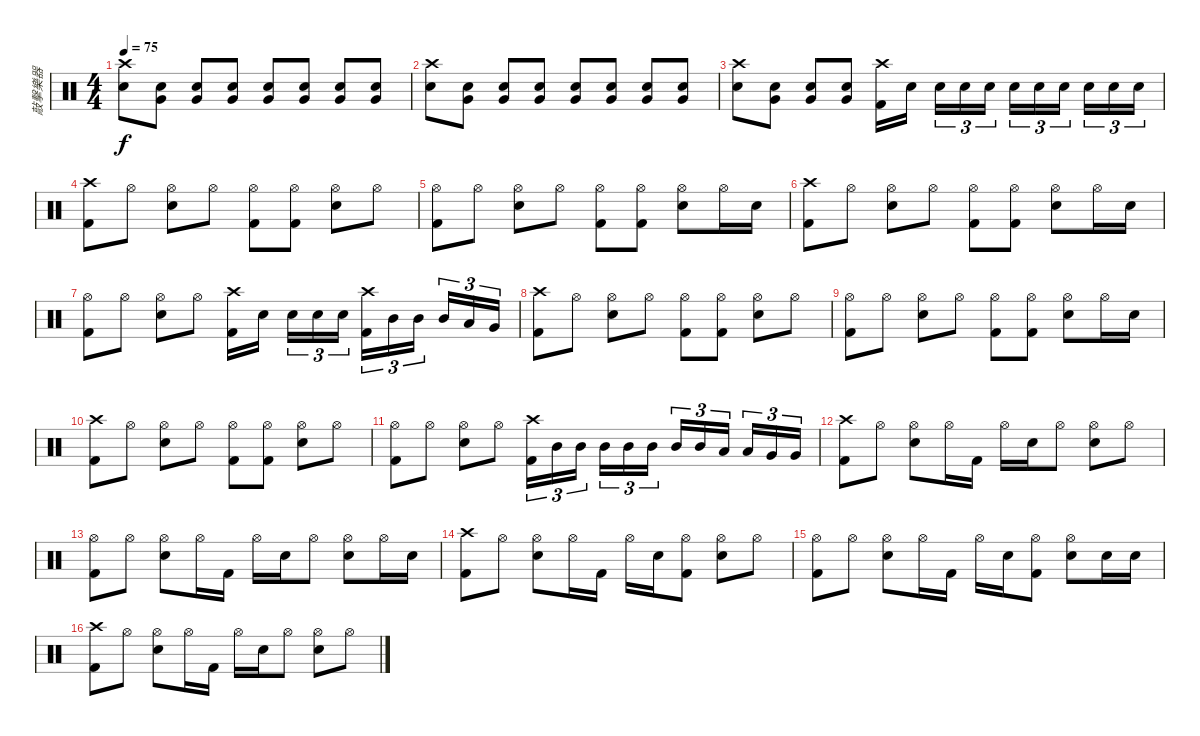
\track ("敲擊樂器" "敲擊樂器") {instrument percussion}
\staff {score}
\articulation defaults
\ts (4 4)
\tempo 75
\clef neutral
\ks c
("Crash high (hit)" "Snare (hit) 2").8{dy f} ("Very Low Tom (hit)" "Snare (hit) 2").8 ("Very Low Tom (hit)" "Snare (hit) 2").8 ("Very Low Tom (hit)" "Snare (hit) 2").8 ("Very Low Tom (hit)" "Snare (hit) 2").8 ("Very Low Tom (hit)" "Snare (hit) 2").8 ("Very Low Tom (hit)" "Snare (hit) 2").8 ("Very Low Tom (hit)" "Snare (hit) 2").8 |
("Snare (hit) 2" "Crash high (hit)").8 ("Snare (hit) 2" "Very Low Tom (hit)").8 ("Snare (hit) 2" "Very Low Tom (hit)").8 ("Snare (hit) 2" "Very Low Tom (hit)").8 ("Snare (hit) 2" "Very Low Tom (hit)").8 ("Snare (hit) 2" "Very Low Tom (hit)").8 ("Snare (hit) 2" "Very Low Tom (hit)").8 ("Snare (hit) 2" "Very Low Tom (hit)").8 |
("Snare (hit) 2" "Crash high (hit)").8 ("Snare (hit) 2" "Very Low Tom (hit)").8 ("Snare (hit) 2" "Very Low Tom (hit)").8 ("Snare (hit) 2" "Very Low Tom (hit)").8 ("Crash high (hit)" "Kick (hit) 2").16 "Snare (hit) 2".16 "Snare (hit) 2".16{tu (3 2)} "Snare (hit) 2".16{tu (3 2)} "Snare (hit) 2".16{tu (3 2)} "Snare (hit) 2".16{tu (3 2)} "Snare (hit) 2".16{tu (3 2)} "Snare (hit) 2".16{tu (3 2)} "Snare (hit) 2".16{tu (3 2)} "Snare (hit) 2".16{tu (3 2)} "Snare (hit) 2".16{tu (3 2)} |
("Kick (hit) 2" "Crash high (hit)").8 "Hi-Hat (open)".8 ("Hi-Hat (open)" "Snare (hit) 2").8 "Hi-Hat (open)".8 ("Hi-Hat (open)" "Kick (hit) 2").8 ("Hi-Hat (open)" "Kick (hit) 2").8 ("Hi-Hat (open)" "Snare (hit) 2").8 "Hi-Hat (open)".8 |
("Hi-Hat (open)" "Kick (hit) 2").8 "Hi-Hat (open)".8 ("Hi-Hat (open)" "Snare (hit) 2").8 "Hi-Hat (open)".8 ("Hi-Hat (open)" "Kick (hit) 2").8 ("Hi-Hat (open)" "Kick (hit) 2").8 ("Hi-Hat (open)" "Snare (hit) 2").8 "Hi-Hat (open)".16 "Snare (hit) 2".16 |
("Kick (hit) 2" "Crash high (hit)").8 "Hi-Hat (open)".8 ("Hi-Hat (open)" "Snare (hit) 2").8 "Hi-Hat (open)".8 ("Hi-Hat (open)" "Kick (hit) 2").8 ("Hi-Hat (open)" "Kick (hit) 2").8 ("Hi-Hat (open)" "Snare (hit) 2").8 "Hi-Hat (open)".16 "Snare (hit) 2".16 |
("Kick (hit) 2" "Hi-Hat (open)").8 "Hi-Hat (open)".8 ("Hi-Hat (open)" "Snare (hit) 2").8 "Hi-Hat (open)".8 ("Crash high (hit)" "Kick (hit) 2").16 "Snare (hit) 2".16 "Snare (hit) 2".16{tu (3 2)} "Snare (hit) 2".16{tu (3 2)} "Snare (hit) 2".16{tu (3 2)} ("Crash high (hit)" "Kick (hit) 2").16{tu (3 2)} "Mid Tom (hit)".16{tu (3 2)} "Mid Tom (hit)".16{tu (3 2)} "Mid Tom (hit)".16{tu (3 2)} "Low Tom (hit)".16{tu (3 2)} "Very Low Tom (hit)".16{tu (3 2)} |
("Crash high (hit)" "Kick (hit) 2").8 "Hi-Hat (open)".8 ("Hi-Hat (open)" "Snare (hit) 2").8 "Hi-Hat (open)".8 ("Hi-Hat (open)" "Kick (hit) 2").8 ("Hi-Hat (open)" "Kick (hit) 2").8 ("Hi-Hat (open)" "Snare (hit) 2").8 "Hi-Hat (open)".8 |
("Hi-Hat (open)" "Kick (hit) 2").8 "Hi-Hat (open)".8 ("Hi-Hat (open)" "Snare (hit) 2").8 "Hi-Hat (open)".8 ("Hi-Hat (open)" "Kick (hit) 2").8 ("Hi-Hat (open)" "Kick (hit) 2").8 ("Hi-Hat (open)" "Snare (hit) 2").8 "Hi-Hat (open)".16 "Snare (hit) 2".16 |
("Crash high (hit)" "Kick (hit) 2").8 "Hi-Hat (open)".8 ("Hi-Hat (open)" "Snare (hit) 2").8 "Hi-Hat (open)".8 ("Hi-Hat (open)" "Kick (hit) 2").8 ("Hi-Hat (open)" "Kick (hit) 2").8 ("Hi-Hat (open)" "Snare (hit) 2").8 "Hi-Hat (open)".8 |
("Hi-Hat (open)" "Kick (hit) 2").8 "Hi-Hat (open)".8 ("Hi-Hat (open)" "Snare (hit) 2").8 "Hi-Hat (open)".8 ("Crash high (hit)" "Kick (hit) 2").16{tu (3 2)} "Mid Tom (hit)".16{tu (3 2)} "Mid Tom (hit)".16{tu (3 2)} "Mid Tom (hit)".16{tu (3 2)} "Mid Tom (hit)".16{tu (3 2)} "Mid Tom (hit)".16{tu (3 2)} "Mid Tom (hit)".16{tu (3 2)} "Mid Tom (hit)".16{tu (3 2)} "Low Tom (hit)".16{tu (3 2)} "Low Tom (hit)".16{tu (3 2)} "Very Low Tom (hit)".16{tu (3 2)} "Very Low Tom (hit)".16{tu (3 2)} |
("Crash high (hit)" "Kick (hit) 2").8 "Hi-Hat (open)".8 ("Hi-Hat (open)" "Snare (hit) 2").8 "Hi-Hat (open)".16 "Kick (hit) 2".16 "Hi-Hat (open)".16 "Snare (hit) 2".16 "Hi-Hat (open)".8 ("Hi-Hat (open)" "Snare (hit) 2").8 "Hi-Hat (open)".8 |
("Hi-Hat (open)" "Kick (hit) 2").8 "Hi-Hat (open)".8 ("Snare (hit) 2" "Hi-Hat (open)").8 "Hi-Hat (open)".16 "Kick (hit) 2".16 "Hi-Hat (open)".16 "Snare (hit) 2".16 "Hi-Hat (open)".8 ("Hi-Hat (open)" "Snare (hit) 2").8 "Hi-Hat (open)".16 "Snare (hit) 2".16 |
("Crash high (hit)" "Kick (hit) 2").8 "Hi-Hat (open)".8 ("Hi-Hat (open)" "Snare (hit) 2").8 "Hi-Hat (open)".16 "Kick (hit) 2".16 "Hi-Hat (open)".16 "Snare (hit) 2".16 ("Kick (hit) 2" "Hi-Hat (open)").8 ("Hi-Hat (open)" "Snare (hit) 2").8 "Hi-Hat (open)".8 |
("Hi-Hat (open)" "Kick (hit) 2").8 "Hi-Hat (open)".8 ("Hi-Hat (open)" "Snare (hit) 2").8 "Hi-Hat (open)".16 "Kick (hit) 2".16 "Hi-Hat (open)".16 "Snare (hit) 2".16 ("Hi-Hat (open)" "Kick (hit) 2").8 ("Hi-Hat (open)" "Snare (hit) 2").8 "Snare (hit) 2".16 "Snare (hit) 2".16 |
("Crash high (hit)" "Kick (hit) 2").8 "Hi-Hat (open)".8 ("Hi-Hat (open)" "Snare (hit) 2").8 "Hi-Hat (open)".16 "Kick (hit) 2".16 "Hi-Hat (open)".16 "Snare (hit) 2".16 "Hi-Hat (open)".8 ("Hi-Hat (open)" "Snare (hit) 2").8 "Hi-Hat (open)".8
